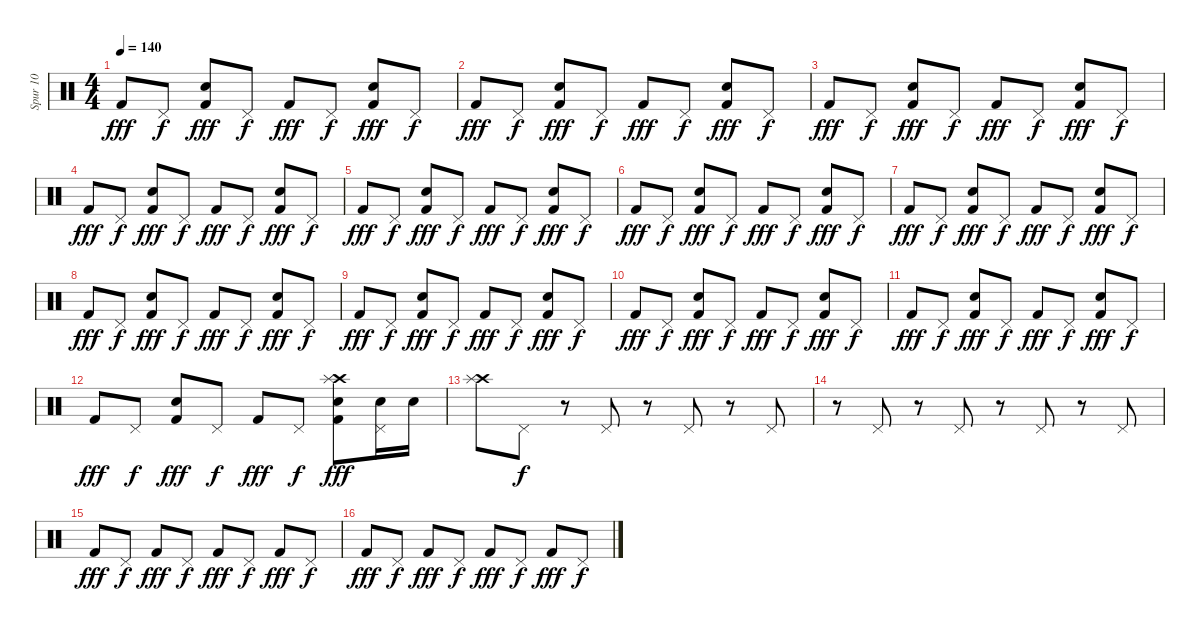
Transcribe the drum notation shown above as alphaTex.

\track ("Spur 10" "Spur 10") {instrument percussion}
\staff {score}
\articulation defaults
\ts (4 4)
\tempo 140
\clef neutral
\ks c "Kick (hit) 2".8{dy fff} "Pedal Hi-Hat (hit)".8{dy f}
("Snare (hit) 2" "Kick (hit) 2").8{dy fff} "Pedal Hi-Hat (hit)".8{dy f} "Kick (hit) 2".8{dy fff} "Pedal Hi-Hat (hit)".8{dy f} ("Snare (hit) 2" "Kick (hit) 2").8{dy fff} "Pedal Hi-Hat (hit)".8{dy f} |
"Kick (hit) 2".8{dy fff} "Pedal Hi-Hat (hit)".8{dy f} ("Snare (hit) 2" "Kick (hit) 2").8{dy fff} "Pedal Hi-Hat (hit)".8{dy f} "Kick (hit) 2".8{dy fff} "Pedal Hi-Hat (hit)".8{dy f} ("Snare (hit) 2" "Kick (hit) 2").8{dy fff} "Pedal Hi-Hat (hit)".8{dy f} |
"Kick (hit) 2".8{dy fff} "Pedal Hi-Hat (hit)".8{dy f} ("Snare (hit) 2" "Kick (hit) 2").8{dy fff} "Pedal Hi-Hat (hit)".8{dy f} "Kick (hit) 2".8{dy fff} "Pedal Hi-Hat (hit)".8{dy f} ("Snare (hit) 2" "Kick (hit) 2").8{dy fff} "Pedal Hi-Hat (hit)".8{dy f} |
"Kick (hit) 2".8{dy fff} "Pedal Hi-Hat (hit)".8{dy f} ("Snare (hit) 2" "Kick (hit) 2").8{dy fff} "Pedal Hi-Hat (hit)".8{dy f} "Kick (hit) 2".8{dy fff} "Pedal Hi-Hat (hit)".8{dy f} ("Snare (hit) 2" "Kick (hit) 2").8{dy fff} "Pedal Hi-Hat (hit)".8{dy f} |
"Kick (hit) 2".8{dy fff} "Pedal Hi-Hat (hit)".8{dy f} ("Snare (hit) 2" "Kick (hit) 2").8{dy fff} "Pedal Hi-Hat (hit)".8{dy f} "Kick (hit) 2".8{dy fff} "Pedal Hi-Hat (hit)".8{dy f} ("Snare (hit) 2" "Kick (hit) 2").8{dy fff} "Pedal Hi-Hat (hit)".8{dy f} |
"Kick (hit) 2".8{dy fff} "Pedal Hi-Hat (hit)".8{dy f} ("Snare (hit) 2" "Kick (hit) 2").8{dy fff} "Pedal Hi-Hat (hit)".8{dy f} "Kick (hit) 2".8{dy fff} "Pedal Hi-Hat (hit)".8{dy f} ("Snare (hit) 2" "Kick (hit) 2").8{dy fff} "Pedal Hi-Hat (hit)".8{dy f} |
"Kick (hit) 2".8{dy fff} "Pedal Hi-Hat (hit)".8{dy f} ("Snare (hit) 2" "Kick (hit) 2").8{dy fff} "Pedal Hi-Hat (hit)".8{dy f} "Kick (hit) 2".8{dy fff} "Pedal Hi-Hat (hit)".8{dy f} ("Snare (hit) 2" "Kick (hit) 2").8{dy fff} "Pedal Hi-Hat (hit)".8{dy f} |
"Kick (hit) 2".8{dy fff} "Pedal Hi-Hat (hit)".8{dy f} ("Snare (hit) 2" "Kick (hit) 2").8{dy fff} "Pedal Hi-Hat (hit)".8{dy f} "Kick (hit) 2".8{dy fff} "Pedal Hi-Hat (hit)".8{dy f} ("Snare (hit) 2" "Kick (hit) 2").8{dy fff} "Pedal Hi-Hat (hit)".8{dy f} |
"Kick (hit) 2".8{dy fff} "Pedal Hi-Hat (hit)".8{dy f} ("Snare (hit) 2" "Kick (hit) 2").8{dy fff} "Pedal Hi-Hat (hit)".8{dy f} "Kick (hit) 2".8{dy fff} "Pedal Hi-Hat (hit)".8{dy f} ("Snare (hit) 2" "Kick (hit) 2").8{dy fff} "Pedal Hi-Hat (hit)".8{dy f} |
"Kick (hit) 2".8{dy fff} "Pedal Hi-Hat (hit)".8{dy f} ("Snare (hit) 2" "Kick (hit) 2").8{dy fff} "Pedal Hi-Hat (hit)".8{dy f} "Kick (hit) 2".8{dy fff} "Pedal Hi-Hat (hit)".8{dy f} ("Snare (hit) 2" "Kick (hit) 2").8{dy fff} "Pedal Hi-Hat (hit)".8{dy f} |
"Kick (hit) 2".8{dy fff} "Pedal Hi-Hat (hit)".8{dy f} ("Snare (hit) 2" "Kick (hit) 2").8{dy fff} "Pedal Hi-Hat (hit)".8{dy f} "Kick (hit) 2".8{dy fff} "Pedal Hi-Hat (hit)".8{dy f} ("Snare (hit) 2" "Kick (hit) 2").8{dy fff} "Pedal Hi-Hat (hit)".8{dy f} |
"Kick (hit) 2".8{dy fff} "Pedal Hi-Hat (hit)".8{dy f} ("Snare (hit) 2" "Kick (hit) 2").8{dy fff} "Pedal Hi-Hat (hit)".8{dy f} "Kick (hit) 2".8{dy fff} "Pedal Hi-Hat (hit)".8{dy f} ("Crash high (hit)" "Splash (hit)" "Snare (hit) 2" "Kick (hit) 2").8{dy fff} ("Pedal Hi-Hat (hit)" "Snare (hit) 2").16 "Snare (hit) 2".16 |
("Crash high (hit)" "Splash (hit)").8 "Pedal Hi-Hat (hit)".8{dy f} r.8 "Pedal Hi-Hat (hit)".8 r.8 "Pedal Hi-Hat (hit)".8 r.8 "Pedal Hi-Hat (hit)".8 |
r.8 "Pedal Hi-Hat (hit)".8 r.8 "Pedal Hi-Hat (hit)".8 r.8 "Pedal Hi-Hat (hit)".8 r.8 "Pedal Hi-Hat (hit)".8 |
"Kick (hit) 2".8{dy fff} "Pedal Hi-Hat (hit)".8{dy f} "Kick (hit) 2".8{dy fff} "Pedal Hi-Hat (hit)".8{dy f} "Kick (hit) 2".8{dy fff} "Pedal Hi-Hat (hit)".8{dy f} "Kick (hit) 2".8{dy fff} "Pedal Hi-Hat (hit)".8{dy f} |
"Kick (hit) 2".8{dy fff} "Pedal Hi-Hat (hit)".8{dy f} "Kick (hit) 2".8{dy fff} "Pedal Hi-Hat (hit)".8{dy f} "Kick (hit) 2".8{dy fff} "Pedal Hi-Hat (hit)".8{dy f} "Kick (hit) 2".8{dy fff} "Pedal Hi-Hat (hit)".8{dy f}
